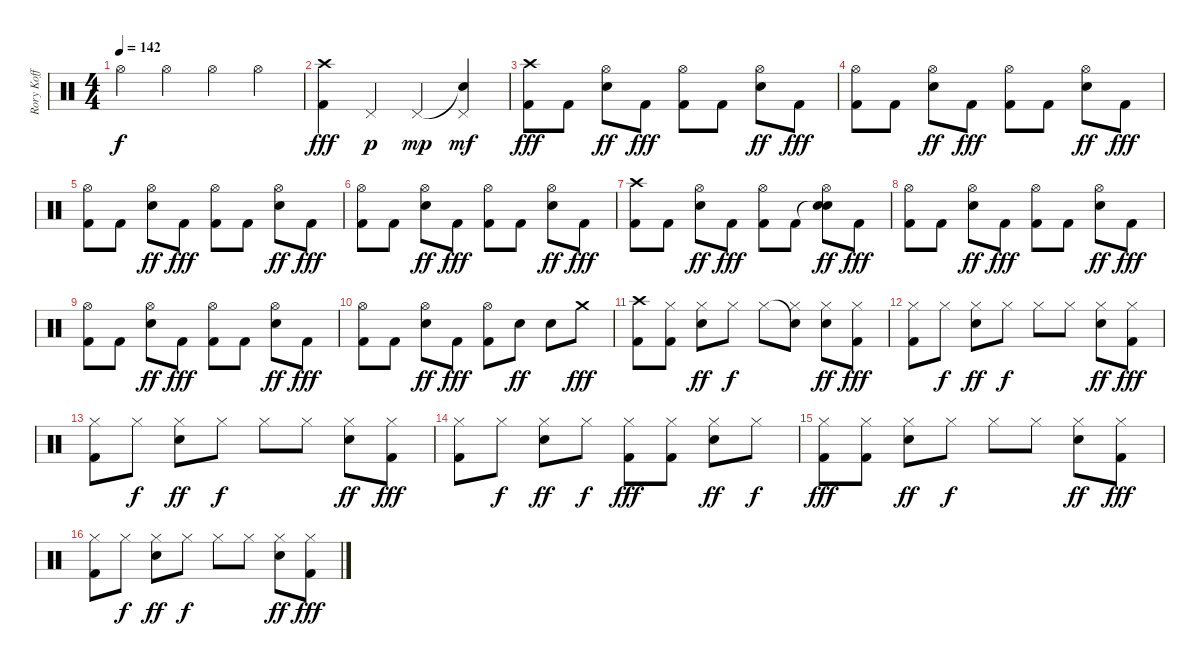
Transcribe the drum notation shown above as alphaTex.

\track ("Rory Koff" "Rory Koff") {instrument percussion}
\staff {score}
\articulation defaults
\ts (4 4)
\tempo 142
\clef neutral
\ks c "Hi-Hat (open)".4{dy f} "Hi-Hat (open)".4 "Hi-Hat (open)".4 "Hi-Hat (open)".4
|
("Crash high (hit)" "Kick (hit) 2").4{dy fff} "Pedal Hi-Hat (hit)".4{dy p} "Pedal Hi-Hat (hit)".4{dy mp} ("Snare (hit)"{t} "Pedal Hi-Hat (hit)").4{dy mf} |
("Crash high (hit)" "Kick (hit) 2").8{dy fff} "Kick (hit) 2".8 ("Hi-Hat (open)" "Electric Snare (hit)").8{dy ff} "Kick (hit) 2".8{dy fff} ("Hi-Hat (open)" "Kick (hit) 2").8 "Kick (hit) 2".8 ("Hi-Hat (open)" "Electric Snare (hit)").8{dy ff} "Kick (hit) 2".8{dy fff} |
("Hi-Hat (open)" "Kick (hit) 2").8 "Kick (hit) 2".8 ("Hi-Hat (open)" "Electric Snare (hit)").8{dy ff} "Kick (hit) 2".8{dy fff} ("Hi-Hat (open)" "Kick (hit) 2").8 "Kick (hit) 2".8 ("Hi-Hat (open)" "Electric Snare (hit)").8{dy ff} "Kick (hit) 2".8{dy fff} |
("Hi-Hat (open)" "Kick (hit) 2").8 "Kick (hit) 2".8 ("Hi-Hat (open)" "Electric Snare (hit)").8{dy ff} "Kick (hit) 2".8{dy fff} ("Hi-Hat (open)" "Kick (hit) 2").8 "Kick (hit) 2".8 ("Hi-Hat (open)" "Electric Snare (hit)").8{dy ff} "Kick (hit) 2".8{dy fff} |
("Hi-Hat (open)" "Kick (hit) 2").8 "Kick (hit) 2".8 ("Hi-Hat (open)" "Electric Snare (hit)").8{dy ff} "Kick (hit) 2".8{dy fff} ("Hi-Hat (open)" "Kick (hit) 2").8 "Kick (hit) 2".8 ("Hi-Hat (open)" "Electric Snare (hit)").8{dy ff} "Kick (hit) 2".8{dy fff} |
("Crash high (hit)" "Kick (hit) 2").8 "Kick (hit) 2".8 ("Hi-Hat (open)" "Electric Snare (hit)").8{dy ff} "Kick (hit) 2".8{dy fff} ("Hi-Hat (open)" "Kick (hit) 2").8 "Kick (hit) 2".8 ("Snare (hit)"{t} "Hi-Hat (open)" "Electric Snare (hit)").8{dy ff} "Kick (hit) 2".8{dy fff} |
("Hi-Hat (open)" "Kick (hit) 2").8 "Kick (hit) 2".8 ("Hi-Hat (open)" "Electric Snare (hit)").8{dy ff} "Kick (hit) 2".8{dy fff} ("Hi-Hat (open)" "Kick (hit) 2").8 "Kick (hit) 2".8 ("Hi-Hat (open)" "Electric Snare (hit)").8{dy ff} "Kick (hit) 2".8{dy fff} |
("Hi-Hat (open)" "Kick (hit) 2").8 "Kick (hit) 2".8 ("Hi-Hat (open)" "Electric Snare (hit)").8{dy ff} "Kick (hit) 2".8{dy fff} ("Hi-Hat (open)" "Kick (hit) 2").8 "Kick (hit) 2".8 ("Hi-Hat (open)" "Electric Snare (hit)").8{dy ff} "Kick (hit) 2".8{dy fff} |
("Hi-Hat (open)" "Kick (hit) 2").8 "Kick (hit) 2".8 ("Hi-Hat (open)" "Electric Snare (hit)").8{dy ff} "Kick (hit) 2".8{dy fff} ("Hi-Hat (open)" "Kick (hit) 2").8 "Electric Snare (hit)".8{dy ff} "Electric Snare (hit)".8 "Crash medium (hit)".8{dy fff} |
("Crash high (hit)" "Kick (hit) 2").8 ("Hi-Hat (closed)" "Kick (hit) 2").8 ("Hi-Hat (closed)" "Electric Snare (hit)").8{dy ff} "Hi-Hat (closed)".8{dy f} "Hi-Hat (closed)".8 ("Snare (hit)"{t} "Hi-Hat (closed)").8 ("Hi-Hat (closed)" "Electric Snare (hit)").8{dy ff} ("Hi-Hat (closed)" "Kick (hit) 2").8{dy fff} |
("Hi-Hat (closed)" "Kick (hit) 2").8 "Hi-Hat (closed)".8{dy f} ("Hi-Hat (closed)" "Electric Snare (hit)").8{dy ff} "Hi-Hat (closed)".8{dy f} "Hi-Hat (closed)".8 "Hi-Hat (closed)".8 ("Hi-Hat (closed)" "Electric Snare (hit)").8{dy ff} ("Hi-Hat (closed)" "Kick (hit) 2").8{dy fff} |
("Hi-Hat (closed)" "Kick (hit) 2").8 "Hi-Hat (closed)".8{dy f} ("Hi-Hat (closed)" "Electric Snare (hit)").8{dy ff} "Hi-Hat (closed)".8{dy f} "Hi-Hat (closed)".8 "Hi-Hat (closed)".8 ("Hi-Hat (closed)" "Electric Snare (hit)").8{dy ff} ("Hi-Hat (closed)" "Kick (hit) 2").8{dy fff} |
("Hi-Hat (closed)" "Kick (hit) 2").8 "Hi-Hat (closed)".8{dy f} ("Hi-Hat (closed)" "Electric Snare (hit)").8{dy ff} "Hi-Hat (closed)".8{dy f} ("Hi-Hat (closed)" "Kick (hit) 2").8{dy fff} ("Hi-Hat (closed)" "Kick (hit) 2").8 ("Hi-Hat (closed)" "Electric Snare (hit)").8{dy ff} "Hi-Hat (closed)".8{dy f} |
("Hi-Hat (closed)" "Kick (hit) 2").8{dy fff} ("Hi-Hat (closed)" "Kick (hit) 2").8 ("Hi-Hat (closed)" "Electric Snare (hit)").8{dy ff} "Hi-Hat (closed)".8{dy f} "Hi-Hat (closed)".8 "Hi-Hat (closed)".8 ("Hi-Hat (closed)" "Electric Snare (hit)").8{dy ff} ("Hi-Hat (closed)" "Kick (hit) 2").8{dy fff} |
("Hi-Hat (closed)" "Kick (hit) 2").8 "Hi-Hat (closed)".8{dy f} ("Hi-Hat (closed)" "Electric Snare (hit)").8{dy ff} "Hi-Hat (closed)".8{dy f} "Hi-Hat (closed)".8 "Hi-Hat (closed)".8 ("Hi-Hat (closed)" "Electric Snare (hit)").8{dy ff} ("Hi-Hat (closed)" "Kick (hit) 2").8{dy fff}
